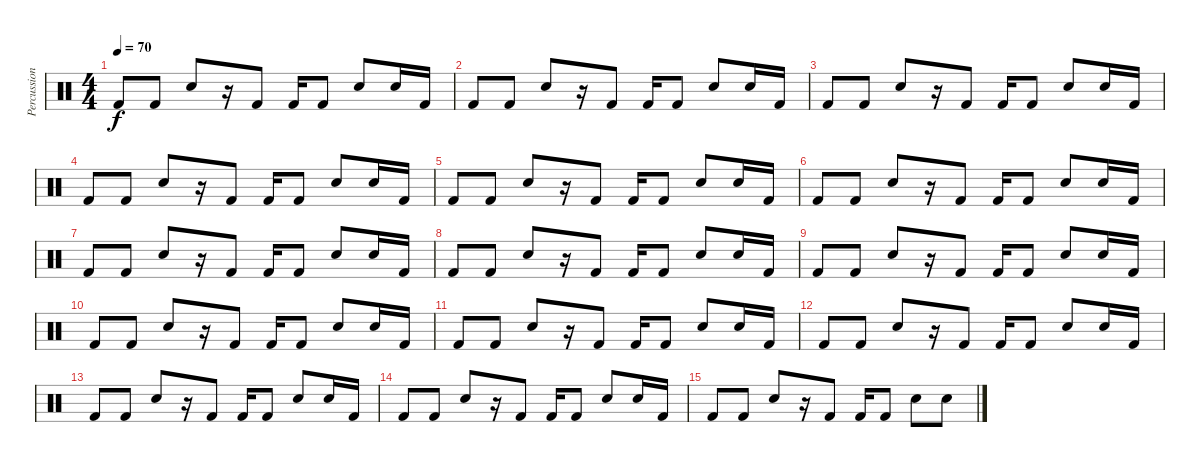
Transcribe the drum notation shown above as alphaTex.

\track ("Percussion 2" "Percussion") {instrument percussion}
\staff {score}
\articulation defaults
\ts (4 4)
\tempo 70
\clef neutral
\ks c "Kick (hit) 2".8{dy f} "Kick (hit) 2".8 "Electric Snare (hit)".8
r.16 "Kick (hit) 2".8 "Kick (hit) 2".16 "Kick (hit) 2".8 "Electric Snare (hit)".8 "Electric Snare (hit)".16 "Kick (hit) 2".16 |
"Kick (hit) 2".8 "Kick (hit) 2".8 "Electric Snare (hit)".8 r.16 "Kick (hit) 2".8 "Kick (hit) 2".16 "Kick (hit) 2".8 "Electric Snare (hit)".8 "Electric Snare (hit)".16 "Kick (hit) 2".16 |
"Kick (hit) 2".8 "Kick (hit) 2".8 "Electric Snare (hit)".8 r.16 "Kick (hit) 2".8 "Kick (hit) 2".16 "Kick (hit) 2".8 "Electric Snare (hit)".8 "Electric Snare (hit)".16 "Kick (hit) 2".16 |
"Kick (hit) 2".8 "Kick (hit) 2".8 "Electric Snare (hit)".8 r.16 "Kick (hit) 2".8 "Kick (hit) 2".16 "Kick (hit) 2".8 "Electric Snare (hit)".8 "Electric Snare (hit)".16 "Kick (hit) 2".16 |
"Kick (hit) 2".8 "Kick (hit) 2".8 "Electric Snare (hit)".8 r.16 "Kick (hit) 2".8 "Kick (hit) 2".16 "Kick (hit) 2".8 "Electric Snare (hit)".8 "Electric Snare (hit)".16 "Kick (hit) 2".16 |
"Kick (hit) 2".8 "Kick (hit) 2".8 "Electric Snare (hit)".8 r.16 "Kick (hit) 2".8 "Kick (hit) 2".16 "Kick (hit) 2".8 "Electric Snare (hit)".8 "Electric Snare (hit)".16 "Kick (hit) 2".16 |
"Kick (hit) 2".8 "Kick (hit) 2".8 "Electric Snare (hit)".8 r.16 "Kick (hit) 2".8 "Kick (hit) 2".16 "Kick (hit) 2".8 "Electric Snare (hit)".8 "Electric Snare (hit)".16 "Kick (hit) 2".16 |
"Kick (hit) 2".8 "Kick (hit) 2".8 "Electric Snare (hit)".8 r.16 "Kick (hit) 2".8 "Kick (hit) 2".16 "Kick (hit) 2".8 "Electric Snare (hit)".8 "Electric Snare (hit)".16 "Kick (hit) 2".16 |
"Kick (hit) 2".8 "Kick (hit) 2".8 "Electric Snare (hit)".8 r.16 "Kick (hit) 2".8 "Kick (hit) 2".16 "Kick (hit) 2".8 "Electric Snare (hit)".8 "Electric Snare (hit)".16 "Kick (hit) 2".16 |
"Kick (hit) 2".8 "Kick (hit) 2".8 "Electric Snare (hit)".8 r.16 "Kick (hit) 2".8 "Kick (hit) 2".16 "Kick (hit) 2".8 "Electric Snare (hit)".8 "Electric Snare (hit)".16 "Kick (hit) 2".16 |
"Kick (hit) 2".8 "Kick (hit) 2".8 "Electric Snare (hit)".8 r.16 "Kick (hit) 2".8 "Kick (hit) 2".16 "Kick (hit) 2".8 "Electric Snare (hit)".8 "Electric Snare (hit)".16 "Kick (hit) 2".16 |
"Kick (hit) 2".8 "Kick (hit) 2".8 "Electric Snare (hit)".8 r.16 "Kick (hit) 2".8 "Kick (hit) 2".16 "Kick (hit) 2".8 "Electric Snare (hit)".8 "Electric Snare (hit)".16 "Kick (hit) 2".16 |
"Kick (hit) 2".8 "Kick (hit) 2".8 "Electric Snare (hit)".8 r.16 "Kick (hit) 2".8 "Kick (hit) 2".16 "Kick (hit) 2".8 "Electric Snare (hit)".8 "Electric Snare (hit)".16 "Kick (hit) 2".16 |
"Kick (hit) 2".8 "Kick (hit) 2".8 "Electric Snare (hit)".8 r.16 "Kick (hit) 2".8 "Kick (hit) 2".16 "Kick (hit) 2".8 "Electric Snare (hit)".8 "Electric Snare (hit)".16 "Kick (hit) 2".16 |
"Kick (hit) 2".8 "Kick (hit) 2".8 "Electric Snare (hit)".8 r.16 "Kick (hit) 2".8 "Kick (hit) 2".16 "Kick (hit) 2".8 "Electric Snare (hit)".8 "Electric Snare (hit)".8
